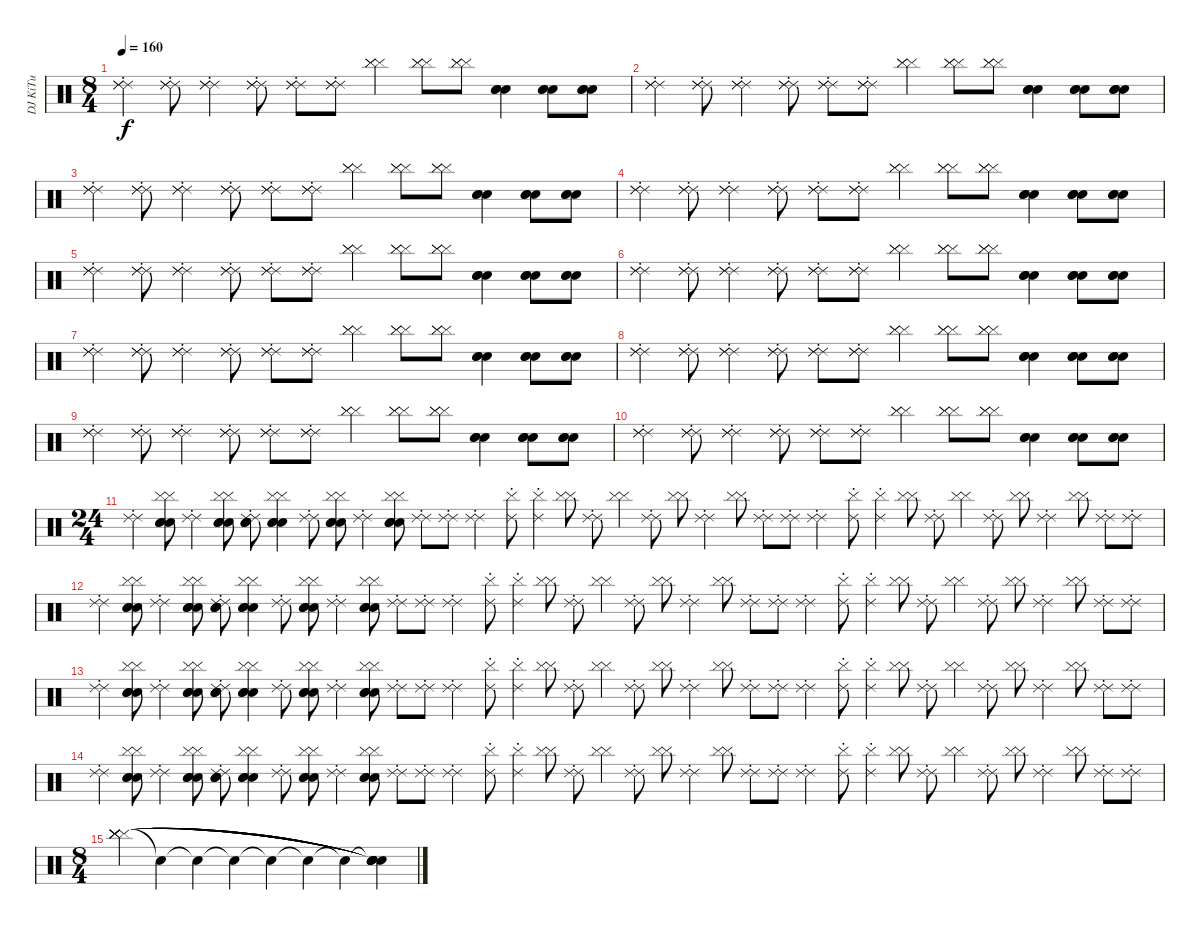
\track ("DJ KiTu" "DJ KiTu") {instrument percussion}
\staff {score}
\articulation defaults
\ts (8 4)
\tempo 160
\clef neutral
\ks c
("Ride (choke) 2" "Ride (choke) 2" "Ride (choke) 2").4{dy f} ("Ride (choke) 2" "Ride (choke) 2" "Ride (choke) 2").8 ("Ride (choke) 2" "Ride (choke) 2" "Ride (choke) 2").4 ("Ride (choke) 2" "Ride (choke) 2" "Ride (choke) 2").8 ("Ride (choke) 2" "Ride (choke) 2" "Ride (choke) 2").8 ("Ride (choke) 2" "Ride (choke) 2" "Ride (choke) 2").8 ("Cymbal (hit)" "Cymbal (hit)" "Cymbal (hit)").4 ("Cymbal (hit)" "Cymbal (hit)" "Cymbal (hit)").8 ("Cymbal (hit)" "Cymbal (hit)" "Cymbal (hit)").8 ("Snare (hit)" "Snare (hit)" "Snare (hit)").4 ("Snare (hit)" "Snare (hit)" "Snare (hit)").8 ("Snare (hit)" "Snare (hit)" "Snare (hit)").8 |
("Ride (choke) 2" "Ride (choke) 2" "Ride (choke) 2").4 ("Ride (choke) 2" "Ride (choke) 2" "Ride (choke) 2").8 ("Ride (choke) 2" "Ride (choke) 2" "Ride (choke) 2").4 ("Ride (choke) 2" "Ride (choke) 2" "Ride (choke) 2").8 ("Ride (choke) 2" "Ride (choke) 2" "Ride (choke) 2").8 ("Ride (choke) 2" "Ride (choke) 2" "Ride (choke) 2").8 ("Cymbal (hit)" "Cymbal (hit)" "Cymbal (hit)").4 ("Cymbal (hit)" "Cymbal (hit)" "Cymbal (hit)").8 ("Cymbal (hit)" "Cymbal (hit)" "Cymbal (hit)").8 ("Snare (hit)" "Snare (hit)" "Snare (hit)").4 ("Snare (hit)" "Snare (hit)" "Snare (hit)").8 ("Snare (hit)" "Snare (hit)" "Snare (hit)").8 |
("Ride (choke) 2" "Ride (choke) 2" "Ride (choke) 2").4 ("Ride (choke) 2" "Ride (choke) 2" "Ride (choke) 2").8 ("Ride (choke) 2" "Ride (choke) 2" "Ride (choke) 2").4 ("Ride (choke) 2" "Ride (choke) 2" "Ride (choke) 2").8 ("Ride (choke) 2" "Ride (choke) 2" "Ride (choke) 2").8 ("Ride (choke) 2" "Ride (choke) 2" "Ride (choke) 2").8 ("Cymbal (hit)" "Cymbal (hit)" "Cymbal (hit)").4 ("Cymbal (hit)" "Cymbal (hit)" "Cymbal (hit)").8 ("Cymbal (hit)" "Cymbal (hit)" "Cymbal (hit)").8 ("Snare (hit)" "Snare (hit)" "Snare (hit)").4 ("Snare (hit)" "Snare (hit)" "Snare (hit)").8 ("Snare (hit)" "Snare (hit)" "Snare (hit)").8 |
("Ride (choke) 2" "Ride (choke) 2" "Ride (choke) 2").4 ("Ride (choke) 2" "Ride (choke) 2" "Ride (choke) 2").8 ("Ride (choke) 2" "Ride (choke) 2" "Ride (choke) 2").4 ("Ride (choke) 2" "Ride (choke) 2" "Ride (choke) 2").8 ("Ride (choke) 2" "Ride (choke) 2" "Ride (choke) 2").8 ("Ride (choke) 2" "Ride (choke) 2" "Ride (choke) 2").8 ("Cymbal (hit)" "Cymbal (hit)" "Cymbal (hit)").4 ("Cymbal (hit)" "Cymbal (hit)" "Cymbal (hit)").8 ("Cymbal (hit)" "Cymbal (hit)" "Cymbal (hit)").8 ("Snare (hit)" "Snare (hit)" "Snare (hit)").4 ("Snare (hit)" "Snare (hit)" "Snare (hit)").8 ("Snare (hit)" "Snare (hit)" "Snare (hit)").8 |
("Ride (choke) 2" "Ride (choke) 2" "Ride (choke) 2").4 ("Ride (choke) 2" "Ride (choke) 2" "Ride (choke) 2").8 ("Ride (choke) 2" "Ride (choke) 2" "Ride (choke) 2").4 ("Ride (choke) 2" "Ride (choke) 2" "Ride (choke) 2").8 ("Ride (choke) 2" "Ride (choke) 2" "Ride (choke) 2").8 ("Ride (choke) 2" "Ride (choke) 2" "Ride (choke) 2").8 ("Cymbal (hit)" "Cymbal (hit)" "Cymbal (hit)").4 ("Cymbal (hit)" "Cymbal (hit)" "Cymbal (hit)").8 ("Cymbal (hit)" "Cymbal (hit)" "Cymbal (hit)").8 ("Snare (hit)" "Snare (hit)" "Snare (hit)").4 ("Snare (hit)" "Snare (hit)" "Snare (hit)").8 ("Snare (hit)" "Snare (hit)" "Snare (hit)").8 |
("Ride (choke) 2" "Ride (choke) 2" "Ride (choke) 2").4 ("Ride (choke) 2" "Ride (choke) 2" "Ride (choke) 2").8 ("Ride (choke) 2" "Ride (choke) 2" "Ride (choke) 2").4 ("Ride (choke) 2" "Ride (choke) 2" "Ride (choke) 2").8 ("Ride (choke) 2" "Ride (choke) 2" "Ride (choke) 2").8 ("Ride (choke) 2" "Ride (choke) 2" "Ride (choke) 2").8 ("Cymbal (hit)" "Cymbal (hit)" "Cymbal (hit)").4 ("Cymbal (hit)" "Cymbal (hit)" "Cymbal (hit)").8 ("Cymbal (hit)" "Cymbal (hit)" "Cymbal (hit)").8 ("Snare (hit)" "Snare (hit)" "Snare (hit)").4 ("Snare (hit)" "Snare (hit)" "Snare (hit)").8 ("Snare (hit)" "Snare (hit)" "Snare (hit)").8 |
("Ride (choke) 2" "Ride (choke) 2" "Ride (choke) 2").4 ("Ride (choke) 2" "Ride (choke) 2" "Ride (choke) 2").8 ("Ride (choke) 2" "Ride (choke) 2" "Ride (choke) 2").4 ("Ride (choke) 2" "Ride (choke) 2" "Ride (choke) 2").8 ("Ride (choke) 2" "Ride (choke) 2" "Ride (choke) 2").8 ("Ride (choke) 2" "Ride (choke) 2" "Ride (choke) 2").8 ("Cymbal (hit)" "Cymbal (hit)" "Cymbal (hit)").4 ("Cymbal (hit)" "Cymbal (hit)" "Cymbal (hit)").8 ("Cymbal (hit)" "Cymbal (hit)" "Cymbal (hit)").8 ("Snare (hit)" "Snare (hit)" "Snare (hit)").4 ("Snare (hit)" "Snare (hit)" "Snare (hit)").8 ("Snare (hit)" "Snare (hit)" "Snare (hit)").8 |
("Ride (choke) 2" "Ride (choke) 2" "Ride (choke) 2").4 ("Ride (choke) 2" "Ride (choke) 2" "Ride (choke) 2").8 ("Ride (choke) 2" "Ride (choke) 2" "Ride (choke) 2").4 ("Ride (choke) 2" "Ride (choke) 2" "Ride (choke) 2").8 ("Ride (choke) 2" "Ride (choke) 2" "Ride (choke) 2").8 ("Ride (choke) 2" "Ride (choke) 2" "Ride (choke) 2").8 ("Cymbal (hit)" "Cymbal (hit)" "Cymbal (hit)").4 ("Cymbal (hit)" "Cymbal (hit)" "Cymbal (hit)").8 ("Cymbal (hit)" "Cymbal (hit)" "Cymbal (hit)").8 ("Snare (hit)" "Snare (hit)" "Snare (hit)").4 ("Snare (hit)" "Snare (hit)" "Snare (hit)").8 ("Snare (hit)" "Snare (hit)" "Snare (hit)").8 |
("Ride (choke) 2" "Ride (choke) 2" "Ride (choke) 2").4 ("Ride (choke) 2" "Ride (choke) 2" "Ride (choke) 2").8 ("Ride (choke) 2" "Ride (choke) 2" "Ride (choke) 2").4 ("Ride (choke) 2" "Ride (choke) 2" "Ride (choke) 2").8 ("Ride (choke) 2" "Ride (choke) 2" "Ride (choke) 2").8 ("Ride (choke) 2" "Ride (choke) 2" "Ride (choke) 2").8 ("Cymbal (hit)" "Cymbal (hit)" "Cymbal (hit)").4 ("Cymbal (hit)" "Cymbal (hit)" "Cymbal (hit)").8 ("Cymbal (hit)" "Cymbal (hit)" "Cymbal (hit)").8 ("Snare (hit)" "Snare (hit)" "Snare (hit)").4 ("Snare (hit)" "Snare (hit)" "Snare (hit)").8 ("Snare (hit)" "Snare (hit)" "Snare (hit)").8 |
("Ride (choke) 2" "Ride (choke) 2" "Ride (choke) 2").4 ("Ride (choke) 2" "Ride (choke) 2" "Ride (choke) 2").8 ("Ride (choke) 2" "Ride (choke) 2" "Ride (choke) 2").4 ("Ride (choke) 2" "Ride (choke) 2" "Ride (choke) 2").8 ("Ride (choke) 2" "Ride (choke) 2" "Ride (choke) 2").8 ("Ride (choke) 2" "Ride (choke) 2" "Ride (choke) 2").8 ("Cymbal (hit)" "Cymbal (hit)" "Cymbal (hit)").4 ("Cymbal (hit)" "Cymbal (hit)" "Cymbal (hit)").8 ("Cymbal (hit)" "Cymbal (hit)" "Cymbal (hit)").8 ("Snare (hit)" "Snare (hit)" "Snare (hit)").4 ("Snare (hit)" "Snare (hit)" "Snare (hit)").8 ("Snare (hit)" "Snare (hit)" "Snare (hit)").8 |
\ts (24 4)
("Ride (choke) 2" "Ride (choke) 2").4 ("Snare (hit)" "Snare (hit)" "Snare (hit)" "Cymbal (hit)" "Cymbal (hit)").8 ("Ride (choke) 2" "Ride (choke) 2").4 ("Snare (hit)" "Snare (hit)" "Snare (hit)" "Cymbal (hit)" "Cymbal (hit)").8 ("Snare (hit)" "Snare (hit)" "Snare (hit)" "Ride (choke) 2" "Ride (choke) 2").8 ("Snare (hit)" "Snare (hit)" "Snare (hit)" "Cymbal (hit)" "Cymbal (hit)").4 ("Ride (choke) 2" "Ride (choke) 2").8 ("Snare (hit)" "Snare (hit)" "Snare (hit)" "Cymbal (hit)" "Cymbal (hit)").8 ("Ride (choke) 2" "Ride (choke) 2").4 ("Snare (hit)" "Snare (hit)" "Snare (hit)" "Cymbal (hit)" "Cymbal (hit)").8 ("Ride (choke) 2" "Ride (choke) 2").8 ("Ride (choke) 2" "Ride (choke) 2").8 ("Ride (choke) 2" "Ride (choke) 2").4 ("Ride (choke) 2" "Cymbal (hit)").8 ("Cymbal (hit)" "Ride (choke) 2").4 ("Cymbal (hit)" "Cymbal (hit)").8 ("Ride (choke) 2" "Ride (choke) 2").8 ("Cymbal (hit)" "Cymbal (hit)").4 ("Ride (choke) 2" "Ride (choke) 2").8 ("Cymbal (hit)" "Cymbal (hit)").8 ("Ride (choke) 2" "Ride (choke) 2").4 ("Cymbal (hit)" "Cymbal (hit)").8 ("Ride (choke) 2" "Ride (choke) 2").8 ("Ride (choke) 2" "Ride (choke) 2").8 ("Ride (choke) 2" "Ride (choke) 2").4 ("Ride (choke) 2" "Cymbal (hit)").8 ("Cymbal (hit)" "Ride (choke) 2").4 ("Cymbal (hit)" "Cymbal (hit)").8 ("Ride (choke) 2" "Ride (choke) 2").8 ("Cymbal (hit)" "Cymbal (hit)").4 ("Ride (choke) 2" "Ride (choke) 2").8 ("Cymbal (hit)" "Cymbal (hit)").8 ("Ride (choke) 2" "Ride (choke) 2").4 ("Cymbal (hit)" "Cymbal (hit)").8 ("Ride (choke) 2" "Ride (choke) 2").8 ("Ride (choke) 2" "Ride (choke) 2").8 |
("Ride (choke) 2" "Ride (choke) 2").4 ("Snare (hit)" "Snare (hit)" "Snare (hit)" "Cymbal (hit)" "Cymbal (hit)").8 ("Ride (choke) 2" "Ride (choke) 2").4 ("Snare (hit)" "Snare (hit)" "Snare (hit)" "Cymbal (hit)" "Cymbal (hit)").8 ("Snare (hit)" "Snare (hit)" "Snare (hit)" "Ride (choke) 2" "Ride (choke) 2").8 ("Snare (hit)" "Snare (hit)" "Snare (hit)" "Cymbal (hit)" "Cymbal (hit)").4 ("Ride (choke) 2" "Ride (choke) 2").8 ("Snare (hit)" "Snare (hit)" "Snare (hit)" "Cymbal (hit)" "Cymbal (hit)").8 ("Ride (choke) 2" "Ride (choke) 2").4 ("Snare (hit)" "Snare (hit)" "Snare (hit)" "Cymbal (hit)" "Cymbal (hit)").8 ("Ride (choke) 2" "Ride (choke) 2").8 ("Ride (choke) 2" "Ride (choke) 2").8 ("Ride (choke) 2" "Ride (choke) 2").4 ("Ride (choke) 2" "Cymbal (hit)").8 ("Cymbal (hit)" "Ride (choke) 2").4 ("Cymbal (hit)" "Cymbal (hit)").8 ("Ride (choke) 2" "Ride (choke) 2").8 ("Cymbal (hit)" "Cymbal (hit)").4 ("Ride (choke) 2" "Ride (choke) 2").8 ("Cymbal (hit)" "Cymbal (hit)").8 ("Ride (choke) 2" "Ride (choke) 2").4 ("Cymbal (hit)" "Cymbal (hit)").8 ("Ride (choke) 2" "Ride (choke) 2").8 ("Ride (choke) 2" "Ride (choke) 2").8 ("Ride (choke) 2" "Ride (choke) 2").4 ("Ride (choke) 2" "Cymbal (hit)").8 ("Cymbal (hit)" "Ride (choke) 2").4 ("Cymbal (hit)" "Cymbal (hit)").8 ("Ride (choke) 2" "Ride (choke) 2").8 ("Cymbal (hit)" "Cymbal (hit)").4 ("Ride (choke) 2" "Ride (choke) 2").8 ("Cymbal (hit)" "Cymbal (hit)").8 ("Ride (choke) 2" "Ride (choke) 2").4 ("Cymbal (hit)" "Cymbal (hit)").8 ("Ride (choke) 2" "Ride (choke) 2").8 ("Ride (choke) 2" "Ride (choke) 2").8 |
("Ride (choke) 2" "Ride (choke) 2").4 ("Snare (hit)" "Snare (hit)" "Snare (hit)" "Cymbal (hit)" "Cymbal (hit)").8 ("Ride (choke) 2" "Ride (choke) 2").4 ("Snare (hit)" "Snare (hit)" "Snare (hit)" "Cymbal (hit)" "Cymbal (hit)").8 ("Snare (hit)" "Snare (hit)" "Snare (hit)" "Ride (choke) 2" "Ride (choke) 2").8 ("Snare (hit)" "Snare (hit)" "Snare (hit)" "Cymbal (hit)" "Cymbal (hit)").4 ("Ride (choke) 2" "Ride (choke) 2").8 ("Snare (hit)" "Snare (hit)" "Snare (hit)" "Cymbal (hit)" "Cymbal (hit)").8 ("Ride (choke) 2" "Ride (choke) 2").4 ("Snare (hit)" "Snare (hit)" "Snare (hit)" "Cymbal (hit)" "Cymbal (hit)").8 ("Ride (choke) 2" "Ride (choke) 2").8 ("Ride (choke) 2" "Ride (choke) 2").8 ("Ride (choke) 2" "Ride (choke) 2").4 ("Ride (choke) 2" "Cymbal (hit)").8 ("Cymbal (hit)" "Ride (choke) 2").4 ("Cymbal (hit)" "Cymbal (hit)").8 ("Ride (choke) 2" "Ride (choke) 2").8 ("Cymbal (hit)" "Cymbal (hit)").4 ("Ride (choke) 2" "Ride (choke) 2").8 ("Cymbal (hit)" "Cymbal (hit)").8 ("Ride (choke) 2" "Ride (choke) 2").4 ("Cymbal (hit)" "Cymbal (hit)").8 ("Ride (choke) 2" "Ride (choke) 2").8 ("Ride (choke) 2" "Ride (choke) 2").8 ("Ride (choke) 2" "Ride (choke) 2").4 ("Ride (choke) 2" "Cymbal (hit)").8 ("Cymbal (hit)" "Ride (choke) 2").4 ("Cymbal (hit)" "Cymbal (hit)").8 ("Ride (choke) 2" "Ride (choke) 2").8 ("Cymbal (hit)" "Cymbal (hit)").4 ("Ride (choke) 2" "Ride (choke) 2").8 ("Cymbal (hit)" "Cymbal (hit)").8 ("Ride (choke) 2" "Ride (choke) 2").4 ("Cymbal (hit)" "Cymbal (hit)").8 ("Ride (choke) 2" "Ride (choke) 2").8 ("Ride (choke) 2" "Ride (choke) 2").8 |
("Ride (choke) 2" "Ride (choke) 2").4 ("Snare (hit)" "Snare (hit)" "Snare (hit)" "Cymbal (hit)" "Cymbal (hit)").8 ("Ride (choke) 2" "Ride (choke) 2").4 ("Snare (hit)" "Snare (hit)" "Snare (hit)" "Cymbal (hit)" "Cymbal (hit)").8 ("Snare (hit)" "Snare (hit)" "Snare (hit)" "Ride (choke) 2" "Ride (choke) 2").8 ("Snare (hit)" "Snare (hit)" "Snare (hit)" "Cymbal (hit)" "Cymbal (hit)").4 ("Ride (choke) 2" "Ride (choke) 2").8 ("Snare (hit)" "Snare (hit)" "Snare (hit)" "Cymbal (hit)" "Cymbal (hit)").8 ("Ride (choke) 2" "Ride (choke) 2").4 ("Snare (hit)" "Snare (hit)" "Snare (hit)" "Cymbal (hit)" "Cymbal (hit)").8 ("Ride (choke) 2" "Ride (choke) 2").8 ("Ride (choke) 2" "Ride (choke) 2").8 ("Ride (choke) 2" "Ride (choke) 2").4 ("Ride (choke) 2" "Cymbal (hit)").8 ("Cymbal (hit)" "Ride (choke) 2").4 ("Cymbal (hit)" "Cymbal (hit)").8 ("Ride (choke) 2" "Ride (choke) 2").8 ("Cymbal (hit)" "Cymbal (hit)").4 ("Ride (choke) 2" "Ride (choke) 2").8 ("Cymbal (hit)" "Cymbal (hit)").8 ("Ride (choke) 2" "Ride (choke) 2").4 ("Cymbal (hit)" "Cymbal (hit)").8 ("Ride (choke) 2" "Ride (choke) 2").8 ("Ride (choke) 2" "Ride (choke) 2").8 ("Ride (choke) 2" "Ride (choke) 2").4 ("Ride (choke) 2" "Cymbal (hit)").8 ("Cymbal (hit)" "Ride (choke) 2").4 ("Cymbal (hit)" "Cymbal (hit)").8 ("Ride (choke) 2" "Ride (choke) 2").8 ("Cymbal (hit)" "Cymbal (hit)").4 ("Ride (choke) 2" "Ride (choke) 2").8 ("Cymbal (hit)" "Cymbal (hit)").8 ("Ride (choke) 2" "Ride (choke) 2").4 ("Cymbal (hit)" "Cymbal (hit)").8 ("Ride (choke) 2" "Ride (choke) 2").8 ("Ride (choke) 2" "Ride (choke) 2").8 |
\ts (8 4)
("Cymbal (hit)" "Cymbal (hit)" "Cymbal (hit)" "Cymbal (hit)" "Cymbal (hit)" "Cymbal (hit)").4 "Snare (hit)"{t}.4 "Snare (hit)"{t}.4 "Snare (hit)"{t}.4 "Snare (hit)"{t}.4 "Snare (hit)"{t}.4 "Snare (hit)"{t}.4 ("Snare (hit)"{t} "Snare (hit)"{t} "Snare (hit)"{t} "Snare (hit)"{t} "Snare (hit)"{t}).4
